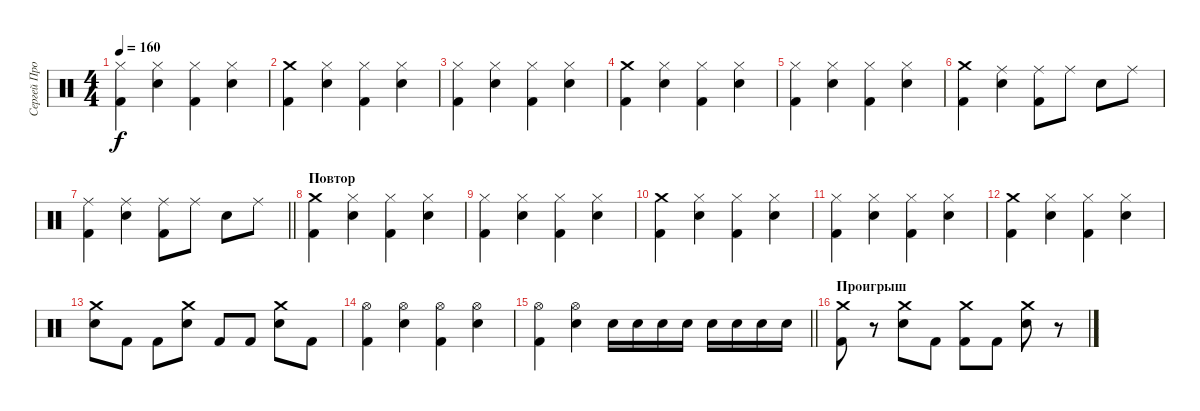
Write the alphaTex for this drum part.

\track ("Сергей Прокофьев" "Сергей Про") {instrument percussion}
\staff {score}
\articulation defaults
\ts (4 4)
\tempo 160
\clef neutral
\ks c
("Hi-Hat (closed)" "Kick (hit) 2").4{dy f} ("Hi-Hat (closed)" "Snare (hit) 2").4 ("Hi-Hat (closed)" "Kick (hit) 2").4 ("Hi-Hat (closed)" "Snare (hit) 2").4 |
("Crash medium (hit)" "Kick (hit) 2").4 ("Hi-Hat (closed)" "Snare (hit) 2").4 ("Hi-Hat (closed)" "Kick (hit) 2").4 ("Hi-Hat (closed)" "Snare (hit) 2").4 |
("Hi-Hat (closed)" "Kick (hit) 2").4 ("Hi-Hat (closed)" "Snare (hit) 2").4 ("Hi-Hat (closed)" "Kick (hit) 2").4 ("Hi-Hat (closed)" "Snare (hit) 2").4 |
("Crash medium (hit)" "Kick (hit) 2").4 ("Hi-Hat (closed)" "Snare (hit) 2").4 ("Hi-Hat (closed)" "Kick (hit) 2").4 ("Hi-Hat (closed)" "Snare (hit) 2").4 |
("Hi-Hat (closed)" "Kick (hit) 2").4 ("Hi-Hat (closed)" "Snare (hit) 2").4 ("Hi-Hat (closed)" "Kick (hit) 2").4 ("Hi-Hat (closed)" "Snare (hit) 2").4 |
("Crash medium (hit)" "Kick (hit) 2").4 ("Ride (middle)" "Snare (hit) 2").4 ("Ride (middle)" "Kick (hit) 2").8 "Ride (middle)".8 "Snare (hit) 2".8 "Ride (middle)".8 |
\barLineRight lightlight
("Ride (middle)" "Kick (hit) 2").4 ("Ride (middle)" "Snare (hit) 2").4 ("Ride (middle)" "Kick (hit) 2").8 "Ride (middle)".8 "Snare (hit) 2".8 "Ride (middle)".8 |
\section ("" "Повтор")
("Crash medium (hit)" "Kick (hit) 2").4 ("Hi-Hat (closed)" "Snare (hit) 2").4 ("Hi-Hat (closed)" "Kick (hit) 2").4 ("Hi-Hat (closed)" "Snare (hit) 2").4 |
("Hi-Hat (closed)" "Kick (hit) 2").4 ("Hi-Hat (closed)" "Snare (hit) 2").4 ("Hi-Hat (closed)" "Kick (hit) 2").4 ("Hi-Hat (closed)" "Snare (hit) 2").4 |
("Crash medium (hit)" "Kick (hit) 2").4 ("Hi-Hat (closed)" "Snare (hit) 2").4 ("Hi-Hat (closed)" "Kick (hit) 2").4 ("Hi-Hat (closed)" "Snare (hit) 2").4 |
("Hi-Hat (closed)" "Kick (hit) 2").4 ("Hi-Hat (closed)" "Snare (hit) 2").4 ("Hi-Hat (closed)" "Kick (hit) 2").4 ("Hi-Hat (closed)" "Snare (hit) 2").4 |
("Crash medium (hit)" "Kick (hit) 2").4 ("Hi-Hat (closed)" "Snare (hit) 2").4 ("Hi-Hat (closed)" "Kick (hit) 2").4 ("Hi-Hat (closed)" "Snare (hit) 2").4 |
("Crash medium (hit)" "Snare (hit) 2").8 "Kick (hit) 2".8 "Kick (hit) 2".8 ("Crash medium (hit)" "Snare (hit) 2").8 "Kick (hit) 2".8 "Kick (hit) 2".8 ("Crash medium (hit)" "Snare (hit) 2").8 "Kick (hit) 2".8 |
("Hi-Hat (open)" "Kick (hit) 2").4 ("Hi-Hat (open)" "Snare (hit) 2").4 ("Hi-Hat (open)" "Kick (hit) 2").4 ("Hi-Hat (open)" "Snare (hit) 2").4 |
\barLineRight lightlight
("Hi-Hat (open)" "Kick (hit) 2").4 ("Hi-Hat (open)" "Snare (hit) 2").4 "Snare (hit) 2".16 "Snare (hit) 2".16 "Snare (hit) 2".16 "Snare (hit) 2".16 "Snare (hit) 2".16 "Snare (hit) 2".16 "Snare (hit) 2".16 "Snare (hit) 2".16 |
\section ("" "Проигрыш")
("Crash medium (hit)" "Kick (hit) 2").8 r.8 ("Crash medium (hit)" "Snare (hit) 2").8 "Kick (hit) 2".8 ("Crash medium (hit)" "Kick (hit) 2").8 "Kick (hit) 2".8 ("Crash medium (hit)" "Snare (hit) 2").8 r.8
